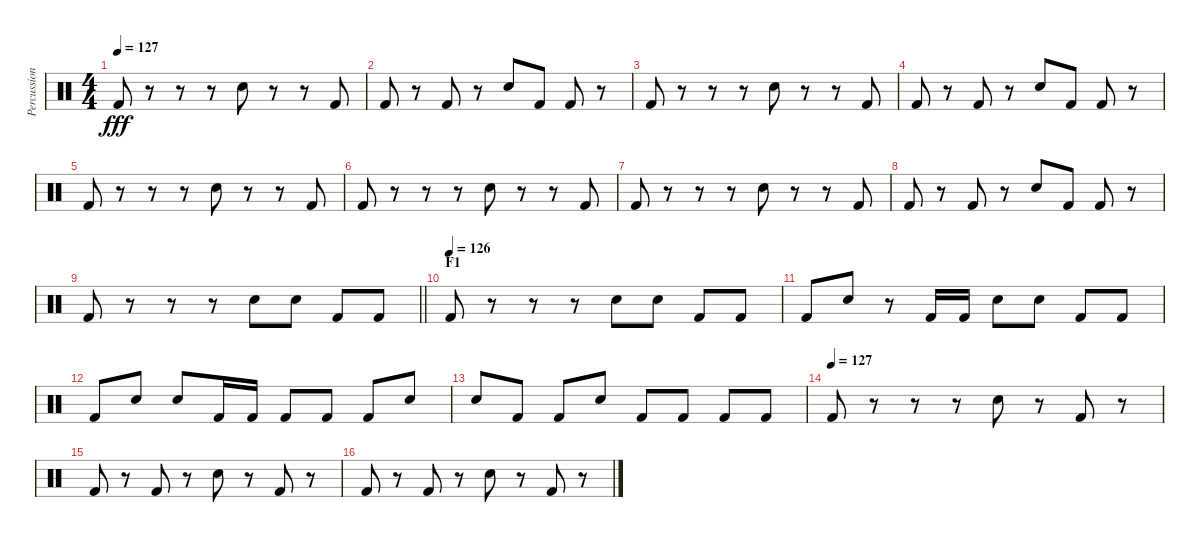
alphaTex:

\track ("Percussion" "Percussion") {instrument percussion}
\staff {score}
\articulation defaults
\ts (4 4)
\tempo 127
\clef neutral
\ks c "Kick (hit) 2".8{dy fff}
r.8 r.8 r.8 "Electric Snare (hit)".8 r.8 r.8 "Kick (hit) 2".8 |
"Kick (hit) 2".8 r.8 "Kick (hit) 2".8 r.8 "Electric Snare (hit)".8 "Kick (hit) 2".8 "Kick (hit) 2".8 r.8 |
"Kick (hit) 2".8 r.8 r.8 r.8 "Electric Snare (hit)".8 r.8 r.8 "Kick (hit) 2".8 |
"Kick (hit) 2".8 r.8 "Kick (hit) 2".8 r.8 "Electric Snare (hit)".8 "Kick (hit) 2".8 "Kick (hit) 2".8 r.8 |
"Kick (hit) 2".8 r.8 r.8 r.8 "Electric Snare (hit)".8 r.8 r.8 "Kick (hit) 2".8 |
"Kick (hit) 2".8 r.8 r.8 r.8 "Electric Snare (hit)".8 r.8 r.8 "Kick (hit) 2".8 |
"Kick (hit) 2".8 r.8 r.8 r.8 "Electric Snare (hit)".8 r.8 r.8 "Kick (hit) 2".8 |
"Kick (hit) 2".8 r.8 "Kick (hit) 2".8 r.8 "Electric Snare (hit)".8 "Kick (hit) 2".8 "Kick (hit) 2".8 r.8 |
\barLineRight lightlight "Kick (hit) 2".8
r.8 r.8 r.8 "Electric Snare (hit)".8 "Electric Snare (hit)".8 "Kick (hit) 2".8 "Kick (hit) 2".8 |
\section ("" "F1")
\tempo (126)
"Kick (hit) 2".8 r.8 r.8 r.8 "Electric Snare (hit)".8 "Electric Snare (hit)".8 "Kick (hit) 2".8 "Kick (hit) 2".8 |
"Kick (hit) 2".8 "Electric Snare (hit)".8 r.8 "Kick (hit) 2".16 "Kick (hit) 2".16 "Electric Snare (hit)".8 "Electric Snare (hit)".8 "Kick (hit) 2".8 "Kick (hit) 2".8 |
"Kick (hit) 2".8 "Electric Snare (hit)".8 "Electric Snare (hit)".8 "Kick (hit) 2".16 "Kick (hit) 2".16 "Kick (hit) 2".8 "Kick (hit) 2".8 "Kick (hit) 2".8 "Electric Snare (hit)".8 |
"Electric Snare (hit)".8 "Kick (hit) 2".8 "Kick (hit) 2".8 "Electric Snare (hit)".8 "Kick (hit) 2".8 "Kick (hit) 2".8 "Kick (hit) 2".8 "Kick (hit) 2".8 |
\tempo (127)
"Kick (hit) 2".8 r.8 r.8 r.8 "Electric Snare (hit)".8 r.8 "Kick (hit) 2".8 r.8 |
"Kick (hit) 2".8 r.8 "Kick (hit) 2".8 r.8 "Electric Snare (hit)".8 r.8 "Kick (hit) 2".8 r.8 |
"Kick (hit) 2".8 r.8 "Kick (hit) 2".8 r.8 "Electric Snare (hit)".8 r.8 "Kick (hit) 2".8 r.8
